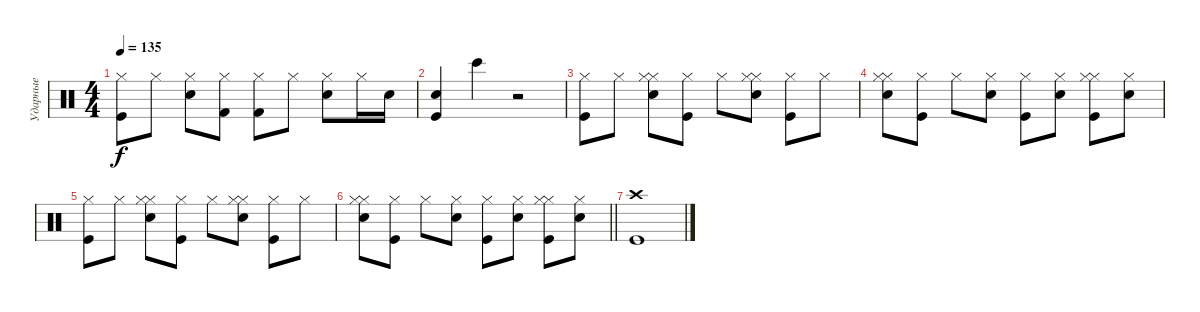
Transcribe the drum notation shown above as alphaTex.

\track ("Ударные" "Ударные") {instrument percussion}
\staff {score}
\articulation defaults
\ts (4 4)
\tempo 135
\clef neutral
\ks c
("Kick (hit)" "Hi-Hat (closed)").8{dy f} "Hi-Hat (closed)".8 ("Snare (hit) 2" "Hi-Hat (closed)").8 ("Hi-Hat (closed)" "Kick (hit) 2").8 ("Hi-Hat (closed)" "Kick (hit) 2").8 "Hi-Hat (closed)".8 ("Hi-Hat (closed)" "Snare (hit) 2").8 "Hi-Hat (closed)".16 "Snare (hit) 2".16 |
("Kick (hit)" "Snare (hit) 2").4 "Bongo High (hit)".4 r.2 |
("Hi-Hat (closed)" "Kick (hit)").8 "Hi-Hat (closed)".8 ("Snare (hit) 2" "Hi-Hat (closed)" "Hi-Hat (closed)").8 ("Hi-Hat (closed)" "Kick (hit)").8 "Hi-Hat (closed)".8 ("Snare (hit) 2" "Hi-Hat (closed)" "Hi-Hat (closed)").8 ("Hi-Hat (closed)" "Kick (hit)").8 "Hi-Hat (closed)".8 |
("Snare (hit) 2" "Hi-Hat (closed)" "Hi-Hat (closed)").8 ("Hi-Hat (closed)" "Kick (hit)").8 "Hi-Hat (closed)".8 ("Hi-Hat (closed)" "Snare (hit) 2").8 ("Hi-Hat (closed)" "Kick (hit)").8 ("Hi-Hat (closed)" "Snare (hit) 2").8 ("Kick (hit)" "Hi-Hat (closed)" "Hi-Hat (closed)").8 ("Snare (hit) 2" "Hi-Hat (closed)").8 |
("Hi-Hat (closed)" "Kick (hit)").8 "Hi-Hat (closed)".8 ("Snare (hit) 2" "Hi-Hat (closed)" "Hi-Hat (closed)").8 ("Hi-Hat (closed)" "Kick (hit)").8 "Hi-Hat (closed)".8 ("Snare (hit) 2" "Hi-Hat (closed)" "Hi-Hat (closed)").8 ("Hi-Hat (closed)" "Kick (hit)").8 "Hi-Hat (closed)".8 |
\barLineRight lightlight
("Snare (hit) 2" "Hi-Hat (closed)" "Hi-Hat (closed)").8 ("Hi-Hat (closed)" "Kick (hit)").8 "Hi-Hat (closed)".8 ("Hi-Hat (closed)" "Snare (hit) 2").8 ("Hi-Hat (closed)" "Kick (hit)").8 ("Hi-Hat (closed)" "Snare (hit) 2").8 ("Kick (hit)" "Hi-Hat (closed)" "Hi-Hat (closed)").8 ("Snare (hit) 2" "Hi-Hat (closed)").8 |
("Crash high (hit)" "Kick (hit)").1
